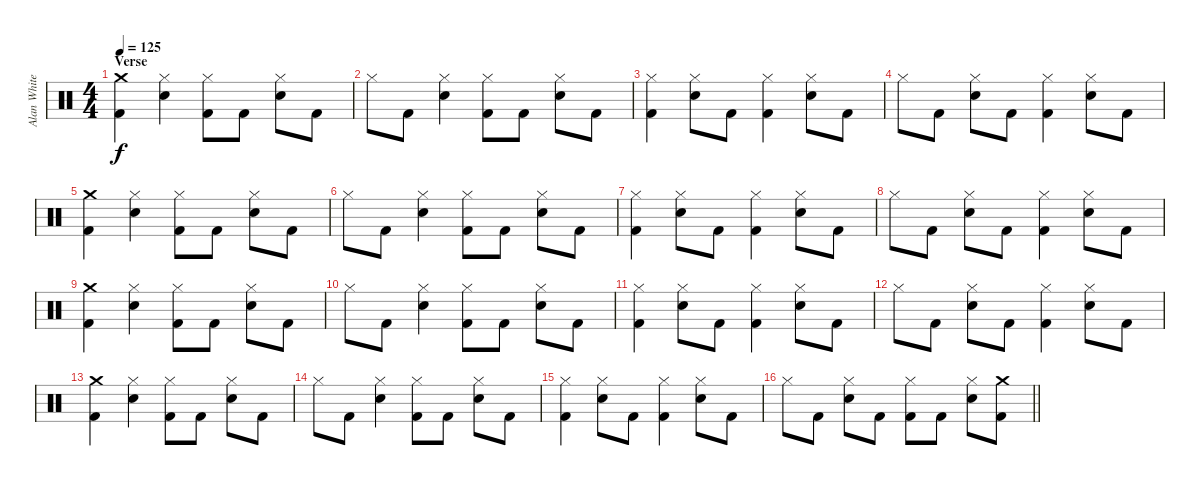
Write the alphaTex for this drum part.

\track ("Alan White" "Alan White") {instrument percussion}
\staff {score}
\articulation defaults
\ts (4 4)
\section ("" "Verse")
\tempo 125
\clef neutral
\ks c
("Crash medium (hit)" "Kick (hit) 2").4{dy f} ("Hi-Hat (closed)" "Snare (hit) 2").4 ("Hi-Hat (closed)" "Kick (hit) 2").8 "Kick (hit) 2".8 ("Hi-Hat (closed)" "Snare (hit) 2").8 "Kick (hit) 2".8 |
"Hi-Hat (closed)".8 "Kick (hit) 2".8 ("Hi-Hat (closed)" "Snare (hit) 2").4 ("Hi-Hat (closed)" "Kick (hit) 2").8 "Kick (hit) 2".8 ("Hi-Hat (closed)" "Snare (hit) 2").8 "Kick (hit) 2".8 |
("Hi-Hat (closed)" "Kick (hit) 2").4 ("Hi-Hat (closed)" "Snare (hit) 2").8 "Kick (hit) 2".8 ("Hi-Hat (closed)" "Kick (hit) 2").4 ("Hi-Hat (closed)" "Snare (hit) 2").8 "Kick (hit) 2".8 |
"Hi-Hat (closed)".8 "Kick (hit) 2".8 ("Hi-Hat (closed)" "Snare (hit) 2").8 "Kick (hit) 2".8 ("Hi-Hat (closed)" "Kick (hit) 2").4 ("Hi-Hat (closed)" "Snare (hit) 2").8 "Kick (hit) 2".8 |
("Crash medium (hit)" "Kick (hit) 2").4 ("Hi-Hat (closed)" "Snare (hit) 2").4 ("Hi-Hat (closed)" "Kick (hit) 2").8 "Kick (hit) 2".8 ("Hi-Hat (closed)" "Snare (hit) 2").8 "Kick (hit) 2".8 |
"Hi-Hat (closed)".8 "Kick (hit) 2".8 ("Hi-Hat (closed)" "Snare (hit) 2").4 ("Hi-Hat (closed)" "Kick (hit) 2").8 "Kick (hit) 2".8 ("Hi-Hat (closed)" "Snare (hit) 2").8 "Kick (hit) 2".8 |
("Hi-Hat (closed)" "Kick (hit) 2").4 ("Hi-Hat (closed)" "Snare (hit) 2").8 "Kick (hit) 2".8 ("Hi-Hat (closed)" "Kick (hit) 2").4 ("Hi-Hat (closed)" "Snare (hit) 2").8 "Kick (hit) 2".8 |
"Hi-Hat (closed)".8 "Kick (hit) 2".8 ("Hi-Hat (closed)" "Snare (hit) 2").8 "Kick (hit) 2".8 ("Hi-Hat (closed)" "Kick (hit) 2").4 ("Hi-Hat (closed)" "Snare (hit) 2").8 "Kick (hit) 2".8 |
("Crash medium (hit)" "Kick (hit) 2").4 ("Hi-Hat (closed)" "Snare (hit) 2").4 ("Hi-Hat (closed)" "Kick (hit) 2").8 "Kick (hit) 2".8 ("Hi-Hat (closed)" "Snare (hit) 2").8 "Kick (hit) 2".8 |
"Hi-Hat (closed)".8 "Kick (hit) 2".8 ("Hi-Hat (closed)" "Snare (hit) 2").4 ("Hi-Hat (closed)" "Kick (hit) 2").8 "Kick (hit) 2".8 ("Hi-Hat (closed)" "Snare (hit) 2").8 "Kick (hit) 2".8 |
("Hi-Hat (closed)" "Kick (hit) 2").4 ("Hi-Hat (closed)" "Snare (hit) 2").8 "Kick (hit) 2".8 ("Hi-Hat (closed)" "Kick (hit) 2").4 ("Hi-Hat (closed)" "Snare (hit) 2").8 "Kick (hit) 2".8 |
"Hi-Hat (closed)".8 "Kick (hit) 2".8 ("Hi-Hat (closed)" "Snare (hit) 2").8 "Kick (hit) 2".8 ("Hi-Hat (closed)" "Kick (hit) 2").4 ("Hi-Hat (closed)" "Snare (hit) 2").8 "Kick (hit) 2".8 |
("Crash medium (hit)" "Kick (hit) 2").4 ("Hi-Hat (closed)" "Snare (hit) 2").4 ("Hi-Hat (closed)" "Kick (hit) 2").8 "Kick (hit) 2".8 ("Hi-Hat (closed)" "Snare (hit) 2").8 "Kick (hit) 2".8 |
"Hi-Hat (closed)".8 "Kick (hit) 2".8 ("Hi-Hat (closed)" "Snare (hit) 2").4 ("Hi-Hat (closed)" "Kick (hit) 2").8 "Kick (hit) 2".8 ("Hi-Hat (closed)" "Snare (hit) 2").8 "Kick (hit) 2".8 |
("Hi-Hat (closed)" "Kick (hit) 2").4 ("Hi-Hat (closed)" "Snare (hit) 2").8 "Kick (hit) 2".8 ("Hi-Hat (closed)" "Kick (hit) 2").4 ("Hi-Hat (closed)" "Snare (hit) 2").8 "Kick (hit) 2".8 |
\barLineRight lightlight "Hi-Hat (closed)".8 "Kick (hit) 2".8
("Hi-Hat (closed)" "Snare (hit) 2").8 "Kick (hit) 2".8 ("Hi-Hat (closed)" "Kick (hit) 2").8 "Kick (hit) 2".8 ("Hi-Hat (closed)" "Snare (hit) 2").8 ("Crash medium (hit)" "Kick (hit) 2").8
